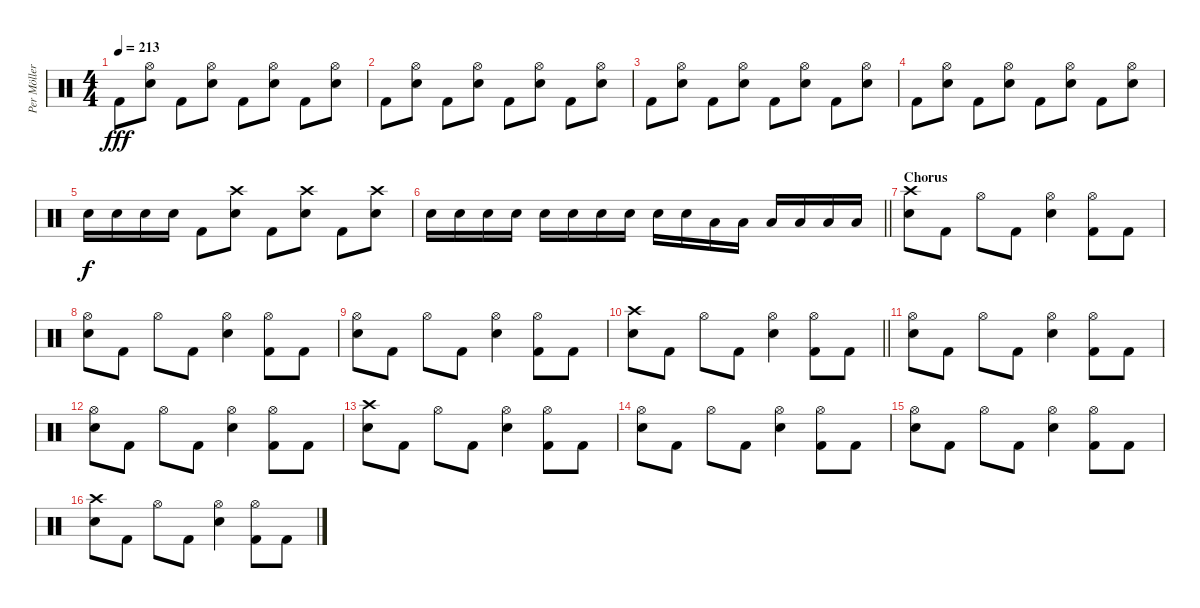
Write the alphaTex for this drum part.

\track ("Per Möller Jensen" "Per Möller") {instrument percussion}
\staff {score}
\articulation defaults
\ts (4 4)
\tempo 213
\clef neutral
\ks c "Kick (hit) 2".8{dy fff}
("Hi-Hat (open)" "Electric Snare (hit)").8 "Kick (hit) 2".8 ("Hi-Hat (open)" "Electric Snare (hit)").8 "Kick (hit) 2".8 ("Hi-Hat (open)" "Electric Snare (hit)").8 "Kick (hit) 2".8 ("Hi-Hat (open)" "Electric Snare (hit)").8 |
"Kick (hit) 2".8 ("Hi-Hat (open)" "Electric Snare (hit)").8 "Kick (hit) 2".8 ("Hi-Hat (open)" "Electric Snare (hit)").8 "Kick (hit) 2".8 ("Hi-Hat (open)" "Electric Snare (hit)").8 "Kick (hit) 2".8 ("Hi-Hat (open)" "Electric Snare (hit)").8 |
"Kick (hit) 2".8 ("Hi-Hat (open)" "Electric Snare (hit)").8 "Kick (hit) 2".8 ("Hi-Hat (open)" "Electric Snare (hit)").8 "Kick (hit) 2".8 ("Hi-Hat (open)" "Electric Snare (hit)").8 "Kick (hit) 2".8 ("Hi-Hat (open)" "Electric Snare (hit)").8 |
"Kick (hit) 2".8 ("Hi-Hat (open)" "Electric Snare (hit)").8 "Kick (hit) 2".8 ("Hi-Hat (open)" "Electric Snare (hit)").8 "Kick (hit) 2".8 ("Hi-Hat (open)" "Electric Snare (hit)").8 "Kick (hit) 2".8 ("Hi-Hat (open)" "Electric Snare (hit)").8 |
"Electric Snare (hit)".16{dy f} "Electric Snare (hit)".16 "Electric Snare (hit)".16 "Electric Snare (hit)".16 "Kick (hit) 2".8 ("Crash high (hit)" "Electric Snare (hit)").8 "Kick (hit) 2".8 ("Crash high (hit)" "Electric Snare (hit)").8 "Kick (hit) 2".8 ("Crash high (hit)" "Electric Snare (hit)").8 |
\barLineRight lightlight "Electric Snare (hit)".16 "Electric Snare (hit)".16 "Electric Snare (hit)".16 "Electric Snare (hit)".16 "Electric Snare (hit)".16 "Electric Snare (hit)".16 "Electric Snare (hit)".16 "Electric Snare (hit)".16 "Electric Snare (hit)".16 "Electric Snare (hit)".16 "Low Tom (hit)".16 "Low Tom (hit)".16 "Low Tom (hit)".16 "Low Tom (hit)".16 "Low Tom (hit)".16 "Low Tom (hit)".16
|
\section ("" "Chorus")
("Crash high (hit)" "Electric Snare (hit)").8 "Kick (hit) 2".8 "Hi-Hat (open)".8 "Kick (hit) 2".8 ("Hi-Hat (open)" "Electric Snare (hit)").4 ("Hi-Hat (open)" "Kick (hit) 2").8 "Kick (hit) 2".8 |
("Hi-Hat (open)" "Electric Snare (hit)").8 "Kick (hit) 2".8 "Hi-Hat (open)".8 "Kick (hit) 2".8 ("Hi-Hat (open)" "Electric Snare (hit)").4 ("Hi-Hat (open)" "Kick (hit) 2").8 "Kick (hit) 2".8 |
("Hi-Hat (open)" "Electric Snare (hit)").8 "Kick (hit) 2".8 "Hi-Hat (open)".8 "Kick (hit) 2".8 ("Hi-Hat (open)" "Electric Snare (hit)").4 ("Hi-Hat (open)" "Kick (hit) 2").8 "Kick (hit) 2".8 |
\barLineRight lightlight
("Crash high (hit)" "Electric Snare (hit)").8 "Kick (hit) 2".8 "Hi-Hat (open)".8 "Kick (hit) 2".8 ("Hi-Hat (open)" "Electric Snare (hit)").4 ("Hi-Hat (open)" "Kick (hit) 2").8 "Kick (hit) 2".8 |
\section ("" "")
("Hi-Hat (open)" "Electric Snare (hit)").8 "Kick (hit) 2".8 "Hi-Hat (open)".8 "Kick (hit) 2".8 ("Hi-Hat (open)" "Electric Snare (hit)").4 ("Hi-Hat (open)" "Kick (hit) 2").8 "Kick (hit) 2".8 |
("Hi-Hat (open)" "Electric Snare (hit)").8 "Kick (hit) 2".8 "Hi-Hat (open)".8 "Kick (hit) 2".8 ("Hi-Hat (open)" "Electric Snare (hit)").4 ("Hi-Hat (open)" "Kick (hit) 2").8 "Kick (hit) 2".8 |
("Crash high (hit)" "Electric Snare (hit)").8 "Kick (hit) 2".8 "Hi-Hat (open)".8 "Kick (hit) 2".8 ("Hi-Hat (open)" "Electric Snare (hit)").4 ("Hi-Hat (open)" "Kick (hit) 2").8 "Kick (hit) 2".8 |
("Hi-Hat (open)" "Electric Snare (hit)").8 "Kick (hit) 2".8 "Hi-Hat (open)".8 "Kick (hit) 2".8 ("Hi-Hat (open)" "Electric Snare (hit)").4 ("Hi-Hat (open)" "Kick (hit) 2").8 "Kick (hit) 2".8 |
("Hi-Hat (open)" "Electric Snare (hit)").8 "Kick (hit) 2".8 "Hi-Hat (open)".8 "Kick (hit) 2".8 ("Hi-Hat (open)" "Electric Snare (hit)").4 ("Hi-Hat (open)" "Kick (hit) 2").8 "Kick (hit) 2".8 |
("Crash high (hit)" "Electric Snare (hit)").8 "Kick (hit) 2".8 "Hi-Hat (open)".8 "Kick (hit) 2".8 ("Hi-Hat (open)" "Electric Snare (hit)").4 ("Hi-Hat (open)" "Kick (hit) 2").8 "Kick (hit) 2".8
